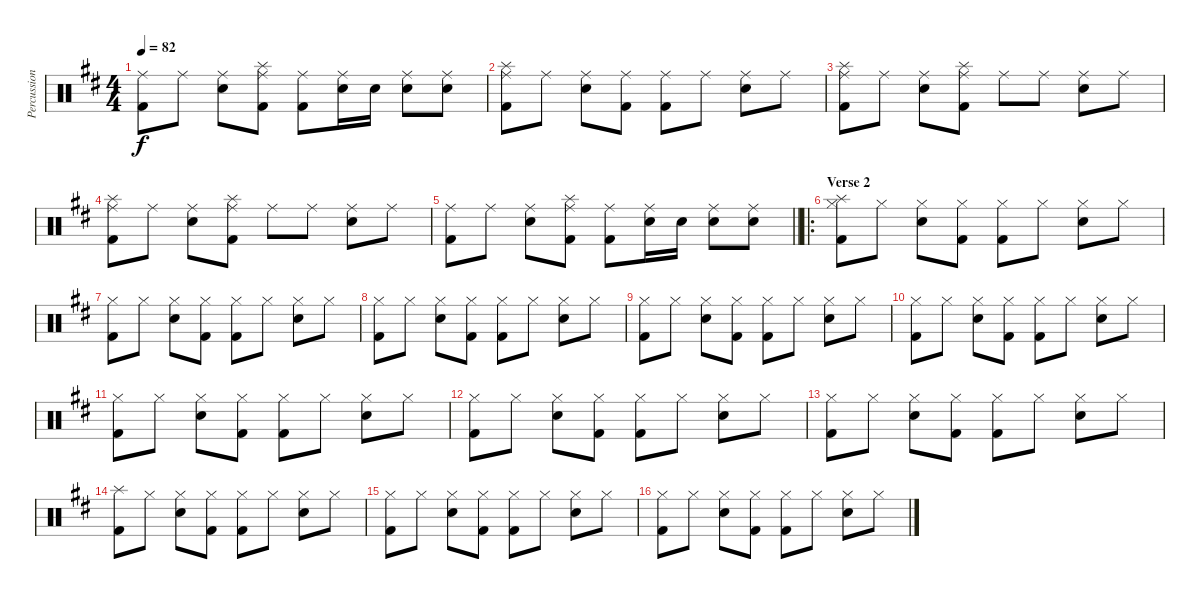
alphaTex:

\track ("Percussion" "Percussion") {instrument percussion}
\staff {score}
\articulation defaults
\ts (4 4)
\tempo 82
\clef neutral
\ks d
("Ride (middle)" "Kick (hit) 2").8{dy f} "Ride (middle)".8 ("Ride (middle)" "Snare (hit) 2").8 ("Splash (hit)" "Ride (middle)" "Kick (hit) 2").8 ("Ride (middle)" "Kick (hit) 2").8 ("Ride (middle)" "Snare (hit) 2").16 "Snare (hit) 2".16 ("Ride (middle)" "Snare (hit) 2").8 ("Ride (middle)" "Snare (hit) 2").8 |
("Splash (hit)" "Ride (middle)" "Kick (hit) 2").8 "Ride (middle)".8 ("Ride (middle)" "Snare (hit) 2").8 ("Ride (middle)" "Kick (hit) 2").8 ("Ride (middle)" "Kick (hit) 2").8 "Ride (middle)".8 ("Ride (middle)" "Snare (hit) 2").8 "Ride (middle)".8 |
("Splash (hit)" "Ride (middle)" "Kick (hit) 2").8 "Ride (middle)".8 ("Ride (middle)" "Snare (hit) 2").8 ("Splash (hit)" "Ride (middle)" "Kick (hit) 2").8 "Ride (middle)".8 "Ride (middle)".8 ("Ride (middle)" "Snare (hit) 2").8 "Ride (middle)".8 |
("Splash (hit)" "Ride (middle)" "Kick (hit) 2").8 "Ride (middle)".8 ("Ride (middle)" "Snare (hit) 2").8 ("Splash (hit)" "Ride (middle)" "Kick (hit) 2").8 "Ride (middle)".8 "Ride (middle)".8 ("Ride (middle)" "Snare (hit) 2").8 "Ride (middle)".8 |
\barLineRight lightlight
("Ride (middle)" "Kick (hit) 2").8 "Ride (middle)".8 ("Ride (middle)" "Snare (hit) 2").8 ("Splash (hit)" "Ride (middle)" "Kick (hit) 2").8 ("Ride (middle)" "Kick (hit) 2").8 ("Ride (middle)" "Snare (hit) 2").16 "Snare (hit) 2".16 ("Ride (middle)" "Snare (hit) 2").8 ("Ride (middle)" "Snare (hit) 2").8 |
\ro
\section ("" "Verse 2")
("Splash (hit)" "Hi-Hat (closed)" "Kick (hit) 2").8 "Hi-Hat (closed)".8 ("Hi-Hat (closed)" "Snare (hit) 2").8 ("Hi-Hat (closed)" "Kick (hit) 2").8 ("Hi-Hat (closed)" "Kick (hit) 2").8 "Hi-Hat (closed)".8 ("Hi-Hat (closed)" "Snare (hit) 2").8 "Hi-Hat (closed)".8 |
("Hi-Hat (closed)" "Kick (hit) 2").8 "Hi-Hat (closed)".8 ("Hi-Hat (closed)" "Snare (hit) 2").8 ("Hi-Hat (closed)" "Kick (hit) 2").8 ("Hi-Hat (closed)" "Kick (hit) 2").8 "Hi-Hat (closed)".8 ("Hi-Hat (closed)" "Snare (hit) 2").8 "Hi-Hat (closed)".8 |
("Hi-Hat (closed)" "Kick (hit) 2").8 "Hi-Hat (closed)".8 ("Hi-Hat (closed)" "Snare (hit) 2").8 ("Hi-Hat (closed)" "Kick (hit) 2").8 ("Hi-Hat (closed)" "Kick (hit) 2").8 "Hi-Hat (closed)".8 ("Hi-Hat (closed)" "Snare (hit) 2").8 "Hi-Hat (closed)".8 |
("Hi-Hat (closed)" "Kick (hit) 2").8 "Hi-Hat (closed)".8 ("Hi-Hat (closed)" "Snare (hit) 2").8 ("Hi-Hat (closed)" "Kick (hit) 2").8 ("Hi-Hat (closed)" "Kick (hit) 2").8 "Hi-Hat (closed)".8 ("Hi-Hat (closed)" "Snare (hit) 2").8 "Hi-Hat (closed)".8 |
("Hi-Hat (closed)" "Kick (hit) 2").8 "Hi-Hat (closed)".8 ("Hi-Hat (closed)" "Snare (hit) 2").8 ("Hi-Hat (closed)" "Kick (hit) 2").8 ("Hi-Hat (closed)" "Kick (hit) 2").8 "Hi-Hat (closed)".8 ("Hi-Hat (closed)" "Snare (hit) 2").8 "Hi-Hat (closed)".8 |
("Hi-Hat (closed)" "Kick (hit) 2").8 "Hi-Hat (closed)".8 ("Hi-Hat (closed)" "Snare (hit) 2").8 ("Hi-Hat (closed)" "Kick (hit) 2").8 ("Hi-Hat (closed)" "Kick (hit) 2").8 "Hi-Hat (closed)".8 ("Hi-Hat (closed)" "Snare (hit) 2").8 "Hi-Hat (closed)".8 |
("Hi-Hat (closed)" "Kick (hit) 2").8 "Hi-Hat (closed)".8 ("Hi-Hat (closed)" "Snare (hit) 2").8 ("Hi-Hat (closed)" "Kick (hit) 2").8 ("Hi-Hat (closed)" "Kick (hit) 2").8 "Hi-Hat (closed)".8 ("Hi-Hat (closed)" "Snare (hit) 2").8 "Hi-Hat (closed)".8 |
("Hi-Hat (closed)" "Kick (hit) 2").8 "Hi-Hat (closed)".8 ("Hi-Hat (closed)" "Snare (hit) 2").8 ("Hi-Hat (closed)" "Kick (hit) 2").8 ("Hi-Hat (closed)" "Kick (hit) 2").8 "Hi-Hat (closed)".8 ("Hi-Hat (closed)" "Snare (hit) 2").8 "Hi-Hat (closed)".8 |
("Splash (hit)" "Kick (hit) 2").8 "Hi-Hat (closed)".8 ("Hi-Hat (closed)" "Snare (hit) 2").8 ("Hi-Hat (closed)" "Kick (hit) 2").8 ("Hi-Hat (closed)" "Kick (hit) 2").8 "Hi-Hat (closed)".8 ("Hi-Hat (closed)" "Snare (hit) 2").8 "Hi-Hat (closed)".8 |
("Hi-Hat (closed)" "Kick (hit) 2").8 "Hi-Hat (closed)".8 ("Hi-Hat (closed)" "Snare (hit) 2").8 ("Hi-Hat (closed)" "Kick (hit) 2").8 ("Hi-Hat (closed)" "Kick (hit) 2").8 "Hi-Hat (closed)".8 ("Hi-Hat (closed)" "Snare (hit) 2").8 "Hi-Hat (closed)".8 |
("Hi-Hat (closed)" "Kick (hit) 2").8 "Hi-Hat (closed)".8 ("Hi-Hat (closed)" "Snare (hit) 2").8 ("Hi-Hat (closed)" "Kick (hit) 2").8 ("Hi-Hat (closed)" "Kick (hit) 2").8 "Hi-Hat (closed)".8 ("Hi-Hat (closed)" "Snare (hit) 2").8 "Hi-Hat (closed)".8
